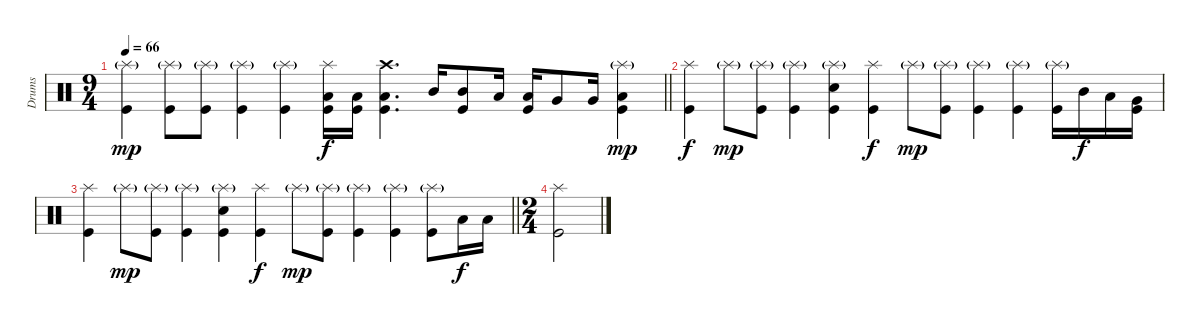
\track ("Drums" "Drums") {instrument percussion}
\staff
\articulation defaults
\ts (9 4)
\tempo 66
\clef neutral
\barLineRight lightlight
\ks c
("Splash (hit)"{g} "Kick (hit)").4{dy mp} ("Splash (hit)"{g} "Kick (hit)").8 ("Splash (hit)"{g} "Kick (hit)").8 ("Splash (hit)"{g} "Kick (hit)").4 ("Splash (hit)"{g} "Kick (hit)").4 ("Splash (hit)" "Low Floor Tom (hit)" "Kick (hit)").16{dy f} ("Low Floor Tom (hit)" "Kick (hit)").16 ("Crash high (hit)" "Low Floor Tom (hit)" "Kick (hit)").4{d} "Mid Tom (hit)".16 ("Mid Tom (hit)" "Kick (hit)").8 "Low Tom (hit)".16 ("Low Tom (hit)" "Kick (hit)").16 "Very Low Tom (hit)".8 "Very Low Tom (hit)".16 ("Splash (hit)"{g} "Low Floor Tom (hit)" "Kick (hit)").4{dy mp} |
\section ("" "")
("Splash (hit)" "Kick (hit)").4{dy f} "Splash (hit)"{g}.8{dy mp} ("Splash (hit)"{g} "Kick (hit)").8 ("Splash (hit)"{g} "Kick (hit)").4 ("Splash (hit)"{g} "Electric Snare (hit)" "Kick (hit)").4 ("Splash (hit)" "Kick (hit)").4{dy f} "Splash (hit)"{g}.8{dy mp} ("Splash (hit)"{g} "Kick (hit)").8 ("Splash (hit)"{g} "Kick (hit)").4 ("Splash (hit)"{g} "Kick (hit)").4 ("Splash (hit)"{g} "Kick (hit)").16 "Mid Tom (hit)".16{dy f} "Low Tom (hit)".16 ("Very Low Tom (hit)" "Kick (hit)").16 |
\barLineRight lightlight
("Splash (hit)" "Kick (hit)").4 "Splash (hit)"{g}.8{dy mp} ("Splash (hit)"{g} "Kick (hit)").8 ("Splash (hit)"{g} "Kick (hit)").4 ("Splash (hit)"{g} "Electric Snare (hit)" "Kick (hit)").4 ("Splash (hit)" "Kick (hit)").4{dy f} "Splash (hit)"{g}.8{dy mp} ("Splash (hit)"{g} "Kick (hit)").8 ("Splash (hit)"{g} "Kick (hit)").4 ("Splash (hit)"{g} "Kick (hit)").4 ("Splash (hit)"{g} "Kick (hit)").8 "Low Tom (hit)".16{dy f} "Low Tom (hit)".16 |
\ts (2 4)
("Splash (hit)" "Kick (hit)").2
